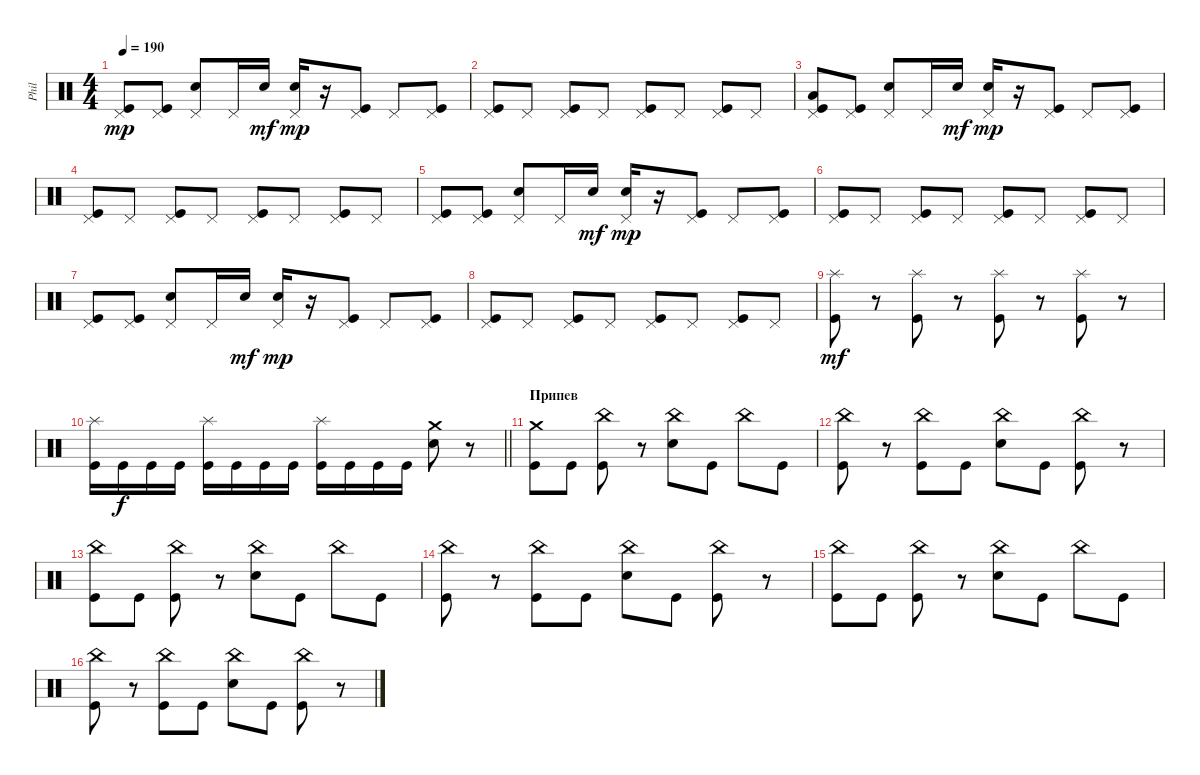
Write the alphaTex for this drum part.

\track ("Phil" "Phil") {instrument percussion}
\staff {score}
\articulation defaults
\ts (4 4)
\tempo 190
\clef neutral
\ks c
("Pedal Hi-Hat (hit)" "Kick (hit)").8{dy mp} ("Pedal Hi-Hat (hit)" "Kick (hit)").8 ("Pedal Hi-Hat (hit)" "Electric Snare (hit)").8 "Pedal Hi-Hat (hit)".16 "Electric Snare (hit)".16{dy mf} ("Pedal Hi-Hat (hit)" "Electric Snare (hit)").16{dy mp} r.16 ("Pedal Hi-Hat (hit)" "Kick (hit)").8 "Pedal Hi-Hat (hit)".8 ("Pedal Hi-Hat (hit)" "Kick (hit)").8 |
("Pedal Hi-Hat (hit)" "Kick (hit)").8 "Pedal Hi-Hat (hit)".8 ("Pedal Hi-Hat (hit)" "Kick (hit)").8 "Pedal Hi-Hat (hit)".8 ("Pedal Hi-Hat (hit)" "Kick (hit)").8 "Pedal Hi-Hat (hit)".8 ("Pedal Hi-Hat (hit)" "Kick (hit)").8 "Pedal Hi-Hat (hit)".8 |
("Low Floor Tom (hit)" "Pedal Hi-Hat (hit)" "Kick (hit)").8 ("Pedal Hi-Hat (hit)" "Kick (hit)").8 ("Pedal Hi-Hat (hit)" "Electric Snare (hit)").8 "Pedal Hi-Hat (hit)".16 "Electric Snare (hit)".16{dy mf} ("Pedal Hi-Hat (hit)" "Electric Snare (hit)").16{dy mp} r.16 ("Pedal Hi-Hat (hit)" "Kick (hit)").8 "Pedal Hi-Hat (hit)".8 ("Pedal Hi-Hat (hit)" "Kick (hit)").8 |
("Pedal Hi-Hat (hit)" "Kick (hit)").8 "Pedal Hi-Hat (hit)".8 ("Pedal Hi-Hat (hit)" "Kick (hit)").8 "Pedal Hi-Hat (hit)".8 ("Pedal Hi-Hat (hit)" "Kick (hit)").8 "Pedal Hi-Hat (hit)".8 ("Pedal Hi-Hat (hit)" "Kick (hit)").8 "Pedal Hi-Hat (hit)".8 |
("Pedal Hi-Hat (hit)" "Kick (hit)").8 ("Pedal Hi-Hat (hit)" "Kick (hit)").8 ("Pedal Hi-Hat (hit)" "Electric Snare (hit)").8 "Pedal Hi-Hat (hit)".16 "Electric Snare (hit)".16{dy mf} ("Pedal Hi-Hat (hit)" "Electric Snare (hit)").16{dy mp} r.16 ("Pedal Hi-Hat (hit)" "Kick (hit)").8 "Pedal Hi-Hat (hit)".8 ("Pedal Hi-Hat (hit)" "Kick (hit)").8 |
("Pedal Hi-Hat (hit)" "Kick (hit)").8 "Pedal Hi-Hat (hit)".8 ("Pedal Hi-Hat (hit)" "Kick (hit)").8 "Pedal Hi-Hat (hit)".8 ("Pedal Hi-Hat (hit)" "Kick (hit)").8 "Pedal Hi-Hat (hit)".8 ("Pedal Hi-Hat (hit)" "Kick (hit)").8 "Pedal Hi-Hat (hit)".8 |
("Pedal Hi-Hat (hit)" "Kick (hit)").8 ("Pedal Hi-Hat (hit)" "Kick (hit)").8 ("Pedal Hi-Hat (hit)" "Electric Snare (hit)").8 "Pedal Hi-Hat (hit)".16 "Electric Snare (hit)".16{dy mf} ("Pedal Hi-Hat (hit)" "Electric Snare (hit)").16{dy mp} r.16 ("Pedal Hi-Hat (hit)" "Kick (hit)").8 "Pedal Hi-Hat (hit)".8 ("Pedal Hi-Hat (hit)" "Kick (hit)").8 |
("Pedal Hi-Hat (hit)" "Kick (hit)").8 "Pedal Hi-Hat (hit)".8 ("Pedal Hi-Hat (hit)" "Kick (hit)").8 "Pedal Hi-Hat (hit)".8 ("Pedal Hi-Hat (hit)" "Kick (hit)").8 "Pedal Hi-Hat (hit)".8 ("Pedal Hi-Hat (hit)" "Kick (hit)").8 "Pedal Hi-Hat (hit)".8 |
("Splash (hit)" "Kick (hit)").8{dy mf} r.8 ("Splash (hit)" "Kick (hit)").8 r.8 ("Splash (hit)" "Kick (hit)").8 r.8 ("Splash (hit)" "Kick (hit)").8 r.8 |
\barLineRight lightlight
("Splash (hit)" "Kick (hit)").16 "Kick (hit)".16{dy f} "Kick (hit)".16 "Kick (hit)".16 ("Splash (hit)" "Kick (hit)").16 "Kick (hit)".16 "Kick (hit)".16 "Kick (hit)".16 ("Splash (hit)" "Kick (hit)").16 "Kick (hit)".16 "Kick (hit)".16 "Kick (hit)".16 ("Crash medium (hit)" "Electric Snare (hit)").8 r.8 |
\section ("" "Припев")
("Crash medium (hit)" "Kick (hit)").8 "Kick (hit)".8 ("China (hit)" "Kick (hit)").8 r.8 ("China (hit)" "Electric Snare (hit)").8 "Kick (hit)".8 "China (hit)".8 "Kick (hit)".8 |
("China (hit)" "Kick (hit)").8 r.8 ("China (hit)" "Kick (hit)").8 "Kick (hit)".8 ("China (hit)" "Electric Snare (hit)").8 "Kick (hit)".8 ("China (hit)" "Kick (hit)").8 r.8 |
("China (hit)" "Kick (hit)").8 "Kick (hit)".8 ("China (hit)" "Kick (hit)").8 r.8 ("China (hit)" "Electric Snare (hit)").8 "Kick (hit)".8 "China (hit)".8 "Kick (hit)".8 |
("China (hit)" "Kick (hit)").8 r.8 ("China (hit)" "Kick (hit)").8 "Kick (hit)".8 ("China (hit)" "Electric Snare (hit)").8 "Kick (hit)".8 ("China (hit)" "Kick (hit)").8 r.8 |
("China (hit)" "Kick (hit)").8 "Kick (hit)".8 ("China (hit)" "Kick (hit)").8 r.8 ("China (hit)" "Electric Snare (hit)").8 "Kick (hit)".8 "China (hit)".8 "Kick (hit)".8 |
("China (hit)" "Kick (hit)").8 r.8 ("China (hit)" "Kick (hit)").8 "Kick (hit)".8 ("China (hit)" "Electric Snare (hit)").8 "Kick (hit)".8 ("China (hit)" "Kick (hit)").8 r.8
